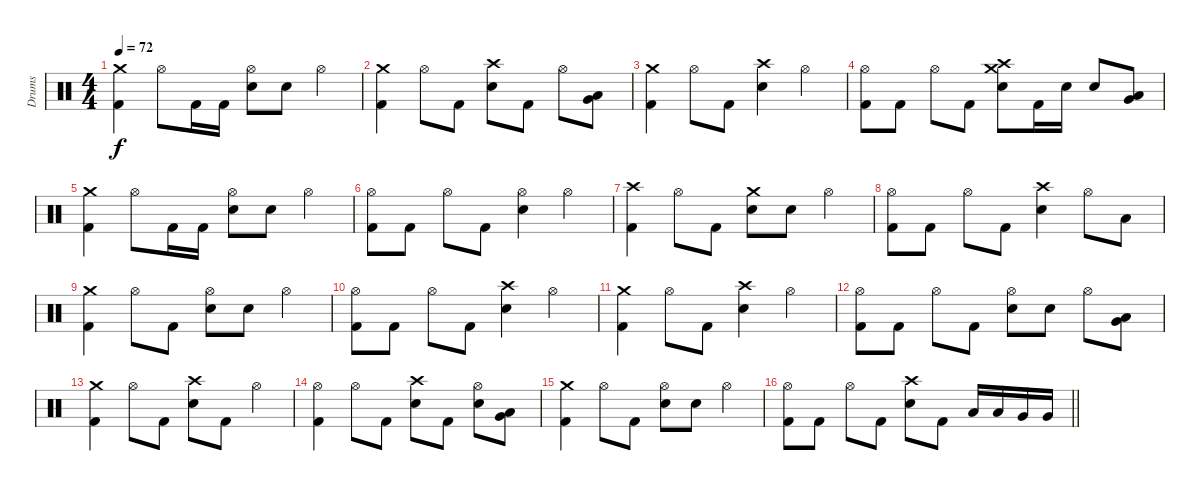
\track ("Drums" "Drums") {instrument percussion}
\staff {score}
\articulation defaults
\ts (4 4)
\tempo 72
\clef neutral
\ks c
("Crash medium (hit)" "Kick (hit) 2").4{dy f} "Hi-Hat (open)".8 "Kick (hit) 2".16 "Kick (hit) 2".16 ("Hi-Hat (open)" "Snare (hit) 2").8 "Snare (hit) 2".8 "Hi-Hat (open)".4 |
("Crash medium (hit)" "Kick (hit) 2").4 "Hi-Hat (open)".8 "Kick (hit) 2".8 ("Crash high (hit)" "Snare (hit) 2").8 "Kick (hit) 2".8 "Hi-Hat (open)".8 ("Low Tom (hit)" "Very Low Tom (hit)").8 |
("Crash medium (hit)" "Kick (hit) 2").4 "Hi-Hat (open)".8 "Kick (hit) 2".8 ("Crash high (hit)" "Snare (hit) 2").4 "Hi-Hat (open)".4 |
("Hi-Hat (open)" "Kick (hit) 2").8 "Kick (hit) 2".8 "Hi-Hat (open)".8 "Kick (hit) 2".8 ("Crash medium (hit)" "Crash high (hit)" "Snare (hit) 2").8 "Kick (hit) 2".16 "Snare (hit) 2".16 "Snare (hit) 2".8 ("Low Tom (hit)" "Very Low Tom (hit)").8 |
("Crash medium (hit)" "Kick (hit) 2").4 "Hi-Hat (open)".8 "Kick (hit) 2".16 "Kick (hit) 2".16 ("Hi-Hat (open)" "Snare (hit) 2").8 "Snare (hit) 2".8 "Hi-Hat (open)".4 |
("Hi-Hat (open)" "Kick (hit) 2").8 "Kick (hit) 2".8 "Hi-Hat (open)".8 "Kick (hit) 2".8 ("Hi-Hat (open)" "Snare (hit) 2").4 "Hi-Hat (open)".4 |
("Crash high (hit)" "Kick (hit) 2").4 "Hi-Hat (open)".8 "Kick (hit) 2".8 ("Crash medium (hit)" "Snare (hit) 2").8 "Snare (hit) 2".8 "Hi-Hat (open)".4 |
("Hi-Hat (open)" "Kick (hit) 2").8 "Kick (hit) 2".8 "Hi-Hat (open)".8 "Kick (hit) 2".8 ("Crash high (hit)" "Snare (hit) 2").4 "Hi-Hat (open)".8 "Low Tom (hit)".8 |
("Crash medium (hit)" "Kick (hit) 2").4 "Hi-Hat (open)".8 "Kick (hit) 2".8 ("Hi-Hat (open)" "Snare (hit) 2").8 "Snare (hit) 2".8 "Hi-Hat (open)".4 |
("Hi-Hat (open)" "Kick (hit) 2").8 "Kick (hit) 2".8 "Hi-Hat (open)".8 "Kick (hit) 2".8 ("Crash high (hit)" "Snare (hit) 2").4 "Hi-Hat (open)".4 |
("Crash medium (hit)" "Kick (hit) 2").4 "Hi-Hat (open)".8 "Kick (hit) 2".8 ("Crash high (hit)" "Snare (hit) 2").4 "Hi-Hat (open)".4 |
("Hi-Hat (open)" "Kick (hit) 2").8 "Kick (hit) 2".8 "Hi-Hat (open)".8 "Kick (hit) 2".8 ("Hi-Hat (open)" "Snare (hit) 2").8 "Snare (hit) 2".8 "Hi-Hat (open)".8 ("Very Low Tom (hit)" "Low Tom (hit)").8 |
("Crash medium (hit)" "Kick (hit) 2").4 "Hi-Hat (open)".8 "Kick (hit) 2".8 ("Crash high (hit)" "Snare (hit) 2").8 "Kick (hit) 2".8 "Hi-Hat (open)".4 |
("Hi-Hat (open)" "Kick (hit) 2").4 "Hi-Hat (open)".8 "Kick (hit) 2".8 ("Crash high (hit)" "Snare (hit) 2").8 "Kick (hit) 2".8 ("Hi-Hat (open)" "Snare (hit) 2").8 ("Low Tom (hit)" "Very Low Tom (hit)").8 |
("Crash medium (hit)" "Kick (hit) 2").4 "Hi-Hat (open)".8 "Kick (hit) 2".8 ("Hi-Hat (open)" "Snare (hit) 2").8 "Snare (hit) 2".8 "Hi-Hat (open)".4 |
\barLineRight lightlight
("Hi-Hat (open)" "Kick (hit) 2").8 "Kick (hit) 2".8 "Hi-Hat (open)".8 "Kick (hit) 2".8 ("Crash high (hit)" "Snare (hit) 2").8 "Kick (hit) 2".8 "Low Tom (hit)".16 "Low Tom (hit)".16 "Very Low Tom (hit)".16 "Very Low Tom (hit)".16
